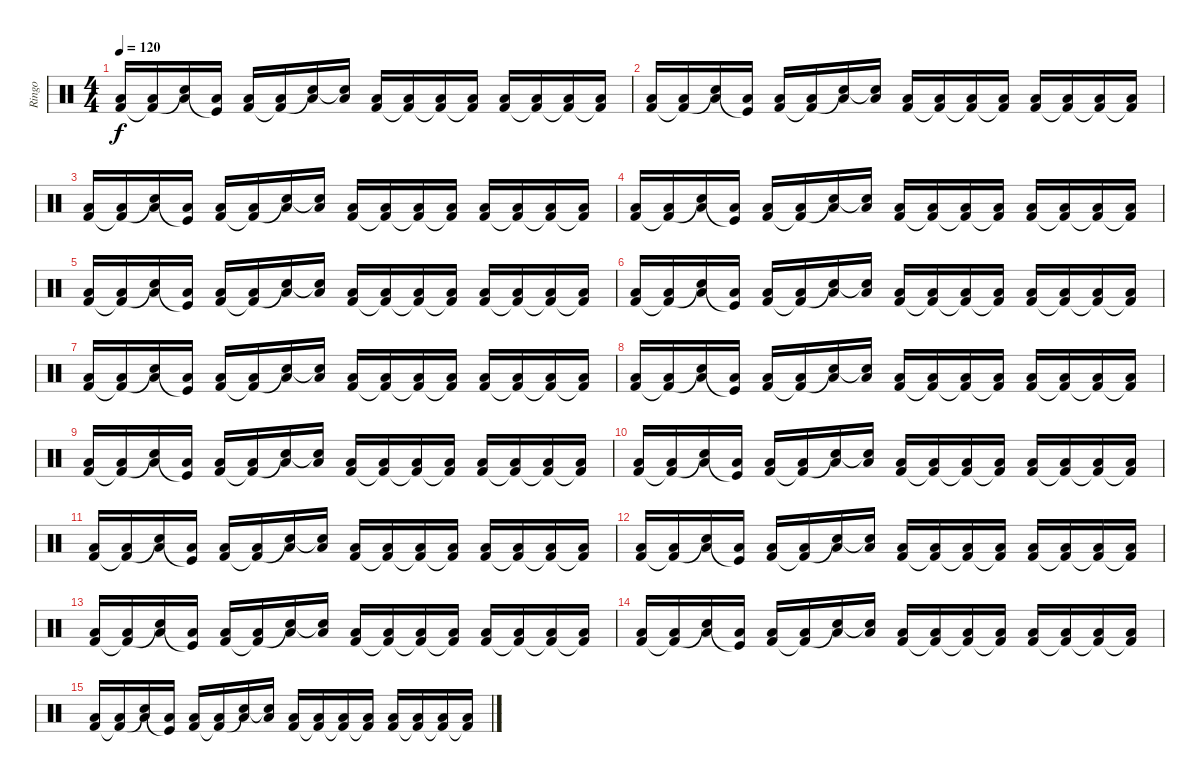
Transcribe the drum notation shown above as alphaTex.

\track ("Ringo" "Ringo") {instrument percussion}
\staff {score}
\articulation defaults
\ts (4 4)
\tempo 120
\clef neutral
\ks c
("Low Floor Tom (hit)" "Kick (hit) 2").16{dy f} ("Low Floor Tom (hit)" "Kick (hit) 2"{t}).16 ("Low Floor Tom (hit)" "Snare (hit)"{t}).16 ("Low Floor Tom (hit)" "Kick (hit)"{t}).16 ("Low Floor Tom (hit)" "Kick (hit) 2").16 ("Low Floor Tom (hit)" "Kick (hit) 2"{t}).16 ("Low Floor Tom (hit)" "Snare (hit)"{t}).16 ("Low Floor Tom (hit)" "Snare (hit)"{t}).16 ("Low Floor Tom (hit)" "Kick (hit) 2").16 ("Low Floor Tom (hit)" "Kick (hit) 2"{t}).16 ("Low Floor Tom (hit)" "Kick (hit) 2"{t}).16 ("Low Floor Tom (hit)" "Kick (hit) 2"{t}).16 ("Low Floor Tom (hit)" "Kick (hit) 2").16 ("Low Floor Tom (hit)" "Kick (hit) 2"{t}).16 ("Low Floor Tom (hit)" "Kick (hit) 2"{t}).16 ("Low Floor Tom (hit)" "Kick (hit) 2"{t}).16 |
("Low Floor Tom (hit)" "Kick (hit) 2").16 ("Low Floor Tom (hit)" "Kick (hit) 2"{t}).16 ("Low Floor Tom (hit)" "Snare (hit)"{t}).16 ("Low Floor Tom (hit)" "Kick (hit)"{t}).16 ("Low Floor Tom (hit)" "Kick (hit) 2").16 ("Low Floor Tom (hit)" "Kick (hit) 2"{t}).16 ("Low Floor Tom (hit)" "Snare (hit)"{t}).16 ("Low Floor Tom (hit)" "Snare (hit)"{t}).16 ("Low Floor Tom (hit)" "Kick (hit) 2").16 ("Low Floor Tom (hit)" "Kick (hit) 2"{t}).16 ("Low Floor Tom (hit)" "Kick (hit) 2"{t}).16 ("Low Floor Tom (hit)" "Kick (hit) 2"{t}).16 ("Low Floor Tom (hit)" "Kick (hit) 2").16 ("Low Floor Tom (hit)" "Kick (hit) 2"{t}).16 ("Low Floor Tom (hit)" "Kick (hit) 2"{t}).16 ("Low Floor Tom (hit)" "Kick (hit) 2"{t}).16 |
("Low Floor Tom (hit)" "Kick (hit) 2").16 ("Low Floor Tom (hit)" "Kick (hit) 2"{t}).16 ("Low Floor Tom (hit)" "Snare (hit)"{t}).16 ("Low Floor Tom (hit)" "Kick (hit)"{t}).16 ("Low Floor Tom (hit)" "Kick (hit) 2").16 ("Low Floor Tom (hit)" "Kick (hit) 2"{t}).16 ("Low Floor Tom (hit)" "Snare (hit)"{t}).16 ("Low Floor Tom (hit)" "Snare (hit)"{t}).16 ("Low Floor Tom (hit)" "Kick (hit) 2").16 ("Low Floor Tom (hit)" "Kick (hit) 2"{t}).16 ("Low Floor Tom (hit)" "Kick (hit) 2"{t}).16 ("Low Floor Tom (hit)" "Kick (hit) 2"{t}).16 ("Low Floor Tom (hit)" "Kick (hit) 2").16 ("Low Floor Tom (hit)" "Kick (hit) 2"{t}).16 ("Low Floor Tom (hit)" "Kick (hit) 2"{t}).16 ("Low Floor Tom (hit)" "Kick (hit) 2"{t}).16 |
("Low Floor Tom (hit)" "Kick (hit) 2").16{volume 13} ("Low Floor Tom (hit)" "Kick (hit) 2"{t}).16 ("Low Floor Tom (hit)" "Snare (hit)"{t}).16 ("Low Floor Tom (hit)" "Kick (hit)"{t}).16 ("Low Floor Tom (hit)" "Kick (hit) 2").16 ("Low Floor Tom (hit)" "Kick (hit) 2"{t}).16 ("Low Floor Tom (hit)" "Snare (hit)"{t}).16 ("Low Floor Tom (hit)" "Snare (hit)"{t}).16 ("Low Floor Tom (hit)" "Kick (hit) 2").16 ("Low Floor Tom (hit)" "Kick (hit) 2"{t}).16 ("Low Floor Tom (hit)" "Kick (hit) 2"{t}).16 ("Low Floor Tom (hit)" "Kick (hit) 2"{t}).16 ("Low Floor Tom (hit)" "Kick (hit) 2").16 ("Low Floor Tom (hit)" "Kick (hit) 2"{t}).16 ("Low Floor Tom (hit)" "Kick (hit) 2"{t}).16 ("Low Floor Tom (hit)" "Kick (hit) 2"{t}).16 |
("Low Floor Tom (hit)" "Kick (hit) 2").16{volume 12} ("Low Floor Tom (hit)" "Kick (hit) 2"{t}).16 ("Low Floor Tom (hit)" "Snare (hit)"{t}).16 ("Low Floor Tom (hit)" "Kick (hit)"{t}).16 ("Low Floor Tom (hit)" "Kick (hit) 2").16 ("Low Floor Tom (hit)" "Kick (hit) 2"{t}).16 ("Low Floor Tom (hit)" "Snare (hit)"{t}).16 ("Low Floor Tom (hit)" "Snare (hit)"{t}).16 ("Low Floor Tom (hit)" "Kick (hit) 2").16 ("Low Floor Tom (hit)" "Kick (hit) 2"{t}).16 ("Low Floor Tom (hit)" "Kick (hit) 2"{t}).16 ("Low Floor Tom (hit)" "Kick (hit) 2"{t}).16 ("Low Floor Tom (hit)" "Kick (hit) 2").16 ("Low Floor Tom (hit)" "Kick (hit) 2"{t}).16 ("Low Floor Tom (hit)" "Kick (hit) 2"{t}).16 ("Low Floor Tom (hit)" "Kick (hit) 2"{t}).16 |
("Low Floor Tom (hit)" "Kick (hit) 2").16{volume 11} ("Low Floor Tom (hit)" "Kick (hit) 2"{t}).16 ("Low Floor Tom (hit)" "Snare (hit)"{t}).16 ("Low Floor Tom (hit)" "Kick (hit)"{t}).16 ("Low Floor Tom (hit)" "Kick (hit) 2").16 ("Low Floor Tom (hit)" "Kick (hit) 2"{t}).16 ("Low Floor Tom (hit)" "Snare (hit)"{t}).16 ("Low Floor Tom (hit)" "Snare (hit)"{t}).16 ("Low Floor Tom (hit)" "Kick (hit) 2").16 ("Low Floor Tom (hit)" "Kick (hit) 2"{t}).16 ("Low Floor Tom (hit)" "Kick (hit) 2"{t}).16 ("Low Floor Tom (hit)" "Kick (hit) 2"{t}).16 ("Low Floor Tom (hit)" "Kick (hit) 2").16 ("Low Floor Tom (hit)" "Kick (hit) 2"{t}).16 ("Low Floor Tom (hit)" "Kick (hit) 2"{t}).16 ("Low Floor Tom (hit)" "Kick (hit) 2"{t}).16 |
("Low Floor Tom (hit)" "Kick (hit) 2").16{volume 10} ("Low Floor Tom (hit)" "Kick (hit) 2"{t}).16 ("Low Floor Tom (hit)" "Snare (hit)"{t}).16 ("Low Floor Tom (hit)" "Kick (hit)"{t}).16 ("Low Floor Tom (hit)" "Kick (hit) 2").16 ("Low Floor Tom (hit)" "Kick (hit) 2"{t}).16 ("Low Floor Tom (hit)" "Snare (hit)"{t}).16 ("Low Floor Tom (hit)" "Snare (hit)"{t}).16 ("Low Floor Tom (hit)" "Kick (hit) 2").16 ("Low Floor Tom (hit)" "Kick (hit) 2"{t}).16 ("Low Floor Tom (hit)" "Kick (hit) 2"{t}).16 ("Low Floor Tom (hit)" "Kick (hit) 2"{t}).16 ("Low Floor Tom (hit)" "Kick (hit) 2").16 ("Low Floor Tom (hit)" "Kick (hit) 2"{t}).16 ("Low Floor Tom (hit)" "Kick (hit) 2"{t}).16 ("Low Floor Tom (hit)" "Kick (hit) 2"{t}).16 |
("Low Floor Tom (hit)" "Kick (hit) 2").16{volume 9} ("Low Floor Tom (hit)" "Kick (hit) 2"{t}).16 ("Low Floor Tom (hit)" "Snare (hit)"{t}).16 ("Low Floor Tom (hit)" "Kick (hit)"{t}).16 ("Low Floor Tom (hit)" "Kick (hit) 2").16 ("Low Floor Tom (hit)" "Kick (hit) 2"{t}).16 ("Low Floor Tom (hit)" "Snare (hit)"{t}).16 ("Low Floor Tom (hit)" "Snare (hit)"{t}).16 ("Low Floor Tom (hit)" "Kick (hit) 2").16 ("Low Floor Tom (hit)" "Kick (hit) 2"{t}).16 ("Low Floor Tom (hit)" "Kick (hit) 2"{t}).16 ("Low Floor Tom (hit)" "Kick (hit) 2"{t}).16 ("Low Floor Tom (hit)" "Kick (hit) 2").16 ("Low Floor Tom (hit)" "Kick (hit) 2"{t}).16 ("Low Floor Tom (hit)" "Kick (hit) 2"{t}).16 ("Low Floor Tom (hit)" "Kick (hit) 2"{t}).16 |
("Low Floor Tom (hit)" "Kick (hit) 2").16{volume 8} ("Low Floor Tom (hit)" "Kick (hit) 2"{t}).16 ("Low Floor Tom (hit)" "Snare (hit)"{t}).16 ("Low Floor Tom (hit)" "Kick (hit)"{t}).16 ("Low Floor Tom (hit)" "Kick (hit) 2").16 ("Low Floor Tom (hit)" "Kick (hit) 2"{t}).16 ("Low Floor Tom (hit)" "Snare (hit)"{t}).16 ("Low Floor Tom (hit)" "Snare (hit)"{t}).16 ("Low Floor Tom (hit)" "Kick (hit) 2").16 ("Low Floor Tom (hit)" "Kick (hit) 2"{t}).16 ("Low Floor Tom (hit)" "Kick (hit) 2"{t}).16 ("Low Floor Tom (hit)" "Kick (hit) 2"{t}).16 ("Low Floor Tom (hit)" "Kick (hit) 2").16 ("Low Floor Tom (hit)" "Kick (hit) 2"{t}).16 ("Low Floor Tom (hit)" "Kick (hit) 2"{t}).16 ("Low Floor Tom (hit)" "Kick (hit) 2"{t}).16 |
("Low Floor Tom (hit)" "Kick (hit) 2").16{volume 7} ("Low Floor Tom (hit)" "Kick (hit) 2"{t}).16 ("Low Floor Tom (hit)" "Snare (hit)"{t}).16 ("Low Floor Tom (hit)" "Kick (hit)"{t}).16 ("Low Floor Tom (hit)" "Kick (hit) 2").16 ("Low Floor Tom (hit)" "Kick (hit) 2"{t}).16 ("Low Floor Tom (hit)" "Snare (hit)"{t}).16 ("Low Floor Tom (hit)" "Snare (hit)"{t}).16 ("Low Floor Tom (hit)" "Kick (hit) 2").16 ("Low Floor Tom (hit)" "Kick (hit) 2"{t}).16 ("Low Floor Tom (hit)" "Kick (hit) 2"{t}).16 ("Low Floor Tom (hit)" "Kick (hit) 2"{t}).16 ("Low Floor Tom (hit)" "Kick (hit) 2").16 ("Low Floor Tom (hit)" "Kick (hit) 2"{t}).16 ("Low Floor Tom (hit)" "Kick (hit) 2"{t}).16 ("Low Floor Tom (hit)" "Kick (hit) 2"{t}).16 |
("Low Floor Tom (hit)" "Kick (hit) 2").16{volume 6} ("Low Floor Tom (hit)" "Kick (hit) 2"{t}).16 ("Low Floor Tom (hit)" "Snare (hit)"{t}).16 ("Low Floor Tom (hit)" "Kick (hit)"{t}).16 ("Low Floor Tom (hit)" "Kick (hit) 2").16 ("Low Floor Tom (hit)" "Kick (hit) 2"{t}).16 ("Low Floor Tom (hit)" "Snare (hit)"{t}).16 ("Low Floor Tom (hit)" "Snare (hit)"{t}).16 ("Low Floor Tom (hit)" "Kick (hit) 2").16 ("Low Floor Tom (hit)" "Kick (hit) 2"{t}).16 ("Low Floor Tom (hit)" "Kick (hit) 2"{t}).16 ("Low Floor Tom (hit)" "Kick (hit) 2"{t}).16 ("Low Floor Tom (hit)" "Kick (hit) 2").16 ("Low Floor Tom (hit)" "Kick (hit) 2"{t}).16 ("Low Floor Tom (hit)" "Kick (hit) 2"{t}).16 ("Low Floor Tom (hit)" "Kick (hit) 2"{t}).16 |
("Low Floor Tom (hit)" "Kick (hit) 2").16{volume 5} ("Low Floor Tom (hit)" "Kick (hit) 2"{t}).16 ("Low Floor Tom (hit)" "Snare (hit)"{t}).16 ("Low Floor Tom (hit)" "Kick (hit)"{t}).16 ("Low Floor Tom (hit)" "Kick (hit) 2").16 ("Low Floor Tom (hit)" "Kick (hit) 2"{t}).16 ("Low Floor Tom (hit)" "Snare (hit)"{t}).16 ("Low Floor Tom (hit)" "Snare (hit)"{t}).16 ("Low Floor Tom (hit)" "Kick (hit) 2").16 ("Low Floor Tom (hit)" "Kick (hit) 2"{t}).16 ("Low Floor Tom (hit)" "Kick (hit) 2"{t}).16 ("Low Floor Tom (hit)" "Kick (hit) 2"{t}).16 ("Low Floor Tom (hit)" "Kick (hit) 2").16 ("Low Floor Tom (hit)" "Kick (hit) 2"{t}).16 ("Low Floor Tom (hit)" "Kick (hit) 2"{t}).16 ("Low Floor Tom (hit)" "Kick (hit) 2"{t}).16 |
("Low Floor Tom (hit)" "Kick (hit) 2").16{volume 4} ("Low Floor Tom (hit)" "Kick (hit) 2"{t}).16 ("Low Floor Tom (hit)" "Snare (hit)"{t}).16 ("Low Floor Tom (hit)" "Kick (hit)"{t}).16 ("Low Floor Tom (hit)" "Kick (hit) 2").16 ("Low Floor Tom (hit)" "Kick (hit) 2"{t}).16 ("Low Floor Tom (hit)" "Snare (hit)"{t}).16 ("Low Floor Tom (hit)" "Snare (hit)"{t}).16 ("Low Floor Tom (hit)" "Kick (hit) 2").16 ("Low Floor Tom (hit)" "Kick (hit) 2"{t}).16 ("Low Floor Tom (hit)" "Kick (hit) 2"{t}).16 ("Low Floor Tom (hit)" "Kick (hit) 2"{t}).16 ("Low Floor Tom (hit)" "Kick (hit) 2").16 ("Low Floor Tom (hit)" "Kick (hit) 2"{t}).16 ("Low Floor Tom (hit)" "Kick (hit) 2"{t}).16 ("Low Floor Tom (hit)" "Kick (hit) 2"{t}).16 |
("Low Floor Tom (hit)" "Kick (hit) 2").16{volume 3} ("Low Floor Tom (hit)" "Kick (hit) 2"{t}).16 ("Low Floor Tom (hit)" "Snare (hit)"{t}).16 ("Low Floor Tom (hit)" "Kick (hit)"{t}).16 ("Low Floor Tom (hit)" "Kick (hit) 2").16 ("Low Floor Tom (hit)" "Kick (hit) 2"{t}).16 ("Low Floor Tom (hit)" "Snare (hit)"{t}).16 ("Low Floor Tom (hit)" "Snare (hit)"{t}).16 ("Low Floor Tom (hit)" "Kick (hit) 2").16 ("Low Floor Tom (hit)" "Kick (hit) 2"{t}).16 ("Low Floor Tom (hit)" "Kick (hit) 2"{t}).16 ("Low Floor Tom (hit)" "Kick (hit) 2"{t}).16 ("Low Floor Tom (hit)" "Kick (hit) 2").16 ("Low Floor Tom (hit)" "Kick (hit) 2"{t}).16 ("Low Floor Tom (hit)" "Kick (hit) 2"{t}).16 ("Low Floor Tom (hit)" "Kick (hit) 2"{t}).16 |
("Low Floor Tom (hit)" "Kick (hit) 2").16{volume 2} ("Low Floor Tom (hit)" "Kick (hit) 2"{t}).16 ("Low Floor Tom (hit)" "Snare (hit)"{t}).16 ("Low Floor Tom (hit)" "Kick (hit)"{t}).16 ("Low Floor Tom (hit)" "Kick (hit) 2").16 ("Low Floor Tom (hit)" "Kick (hit) 2"{t}).16 ("Low Floor Tom (hit)" "Snare (hit)"{t}).16 ("Low Floor Tom (hit)" "Snare (hit)"{t}).16 ("Low Floor Tom (hit)" "Kick (hit) 2").16 ("Low Floor Tom (hit)" "Kick (hit) 2"{t}).16 ("Low Floor Tom (hit)" "Kick (hit) 2"{t}).16 ("Low Floor Tom (hit)" "Kick (hit) 2"{t}).16 ("Low Floor Tom (hit)" "Kick (hit) 2").16 ("Low Floor Tom (hit)" "Kick (hit) 2"{t}).16 ("Low Floor Tom (hit)" "Kick (hit) 2"{t}).16 ("Low Floor Tom (hit)" "Kick (hit) 2"{t}).16
